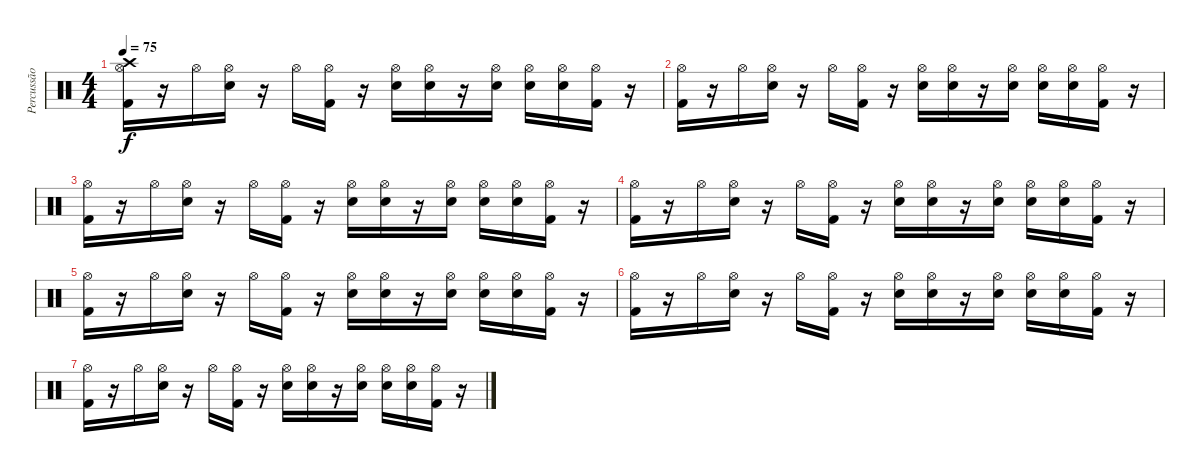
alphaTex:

\track ("Percussão" "Percussão") {instrument percussion}
\staff {score}
\articulation defaults
\ts (4 4)
\tempo 75
\clef neutral
\ks c
("Crash high (hit)" "Kick (hit) 2" "Hi-Hat (open)").16{dy f} r.16 "Hi-Hat (open)".16 ("Snare (hit) 2" "Hi-Hat (open)").16 r.16 "Hi-Hat (open)".16 ("Kick (hit) 2" "Hi-Hat (open)").16 r.16 ("Electric Snare (hit)" "Hi-Hat (open)").16 ("Snare (hit) 2" "Hi-Hat (open)").16 r.16 ("Electric Snare (hit)" "Hi-Hat (open)").16 ("Electric Snare (hit)" "Hi-Hat (open)").16 ("Snare (hit) 2" "Hi-Hat (open)").16 ("Kick (hit) 2" "Hi-Hat (open)").16 r.16 |
("Kick (hit) 2" "Hi-Hat (open)").16 r.16 "Hi-Hat (open)".16 ("Snare (hit) 2" "Hi-Hat (open)").16 r.16 "Hi-Hat (open)".16 ("Kick (hit) 2" "Hi-Hat (open)").16 r.16 ("Electric Snare (hit)" "Hi-Hat (open)").16 ("Snare (hit) 2" "Hi-Hat (open)").16 r.16 ("Electric Snare (hit)" "Hi-Hat (open)").16 ("Electric Snare (hit)" "Hi-Hat (open)").16 ("Snare (hit) 2" "Hi-Hat (open)").16 ("Kick (hit) 2" "Hi-Hat (open)").16 r.16 |
("Kick (hit) 2" "Hi-Hat (open)").16 r.16 "Hi-Hat (open)".16 ("Snare (hit) 2" "Hi-Hat (open)").16 r.16 "Hi-Hat (open)".16 ("Kick (hit) 2" "Hi-Hat (open)").16 r.16 ("Electric Snare (hit)" "Hi-Hat (open)").16 ("Snare (hit) 2" "Hi-Hat (open)").16 r.16 ("Electric Snare (hit)" "Hi-Hat (open)").16 ("Electric Snare (hit)" "Hi-Hat (open)").16 ("Snare (hit) 2" "Hi-Hat (open)").16 ("Kick (hit) 2" "Hi-Hat (open)").16 r.16 |
("Kick (hit) 2" "Hi-Hat (open)").16 r.16 "Hi-Hat (open)".16 ("Snare (hit) 2" "Hi-Hat (open)").16 r.16 "Hi-Hat (open)".16 ("Kick (hit) 2" "Hi-Hat (open)").16 r.16 ("Electric Snare (hit)" "Hi-Hat (open)").16 ("Snare (hit) 2" "Hi-Hat (open)").16 r.16 ("Electric Snare (hit)" "Hi-Hat (open)").16 ("Electric Snare (hit)" "Hi-Hat (open)").16 ("Snare (hit) 2" "Hi-Hat (open)").16 ("Kick (hit) 2" "Hi-Hat (open)").16 r.16 |
("Kick (hit) 2" "Hi-Hat (open)").16 r.16 "Hi-Hat (open)".16 ("Snare (hit) 2" "Hi-Hat (open)").16 r.16 "Hi-Hat (open)".16 ("Kick (hit) 2" "Hi-Hat (open)").16 r.16 ("Electric Snare (hit)" "Hi-Hat (open)").16 ("Snare (hit) 2" "Hi-Hat (open)").16 r.16 ("Electric Snare (hit)" "Hi-Hat (open)").16 ("Electric Snare (hit)" "Hi-Hat (open)").16 ("Snare (hit) 2" "Hi-Hat (open)").16 ("Kick (hit) 2" "Hi-Hat (open)").16 r.16 |
("Kick (hit) 2" "Hi-Hat (open)").16 r.16 "Hi-Hat (open)".16 ("Snare (hit) 2" "Hi-Hat (open)").16 r.16 "Hi-Hat (open)".16 ("Kick (hit) 2" "Hi-Hat (open)").16 r.16 ("Electric Snare (hit)" "Hi-Hat (open)").16 ("Snare (hit) 2" "Hi-Hat (open)").16 r.16 ("Electric Snare (hit)" "Hi-Hat (open)").16 ("Electric Snare (hit)" "Hi-Hat (open)").16 ("Snare (hit) 2" "Hi-Hat (open)").16 ("Kick (hit) 2" "Hi-Hat (open)").16 r.16 |
("Kick (hit) 2" "Hi-Hat (open)").16 r.16 "Hi-Hat (open)".16 ("Snare (hit) 2" "Hi-Hat (open)").16 r.16 "Hi-Hat (open)".16 ("Kick (hit) 2" "Hi-Hat (open)").16 r.16 ("Electric Snare (hit)" "Hi-Hat (open)").16 ("Snare (hit) 2" "Hi-Hat (open)").16 r.16 ("Electric Snare (hit)" "Hi-Hat (open)").16 ("Electric Snare (hit)" "Hi-Hat (open)").16 ("Snare (hit) 2" "Hi-Hat (open)").16 ("Kick (hit) 2" "Hi-Hat (open)").16 r.16
